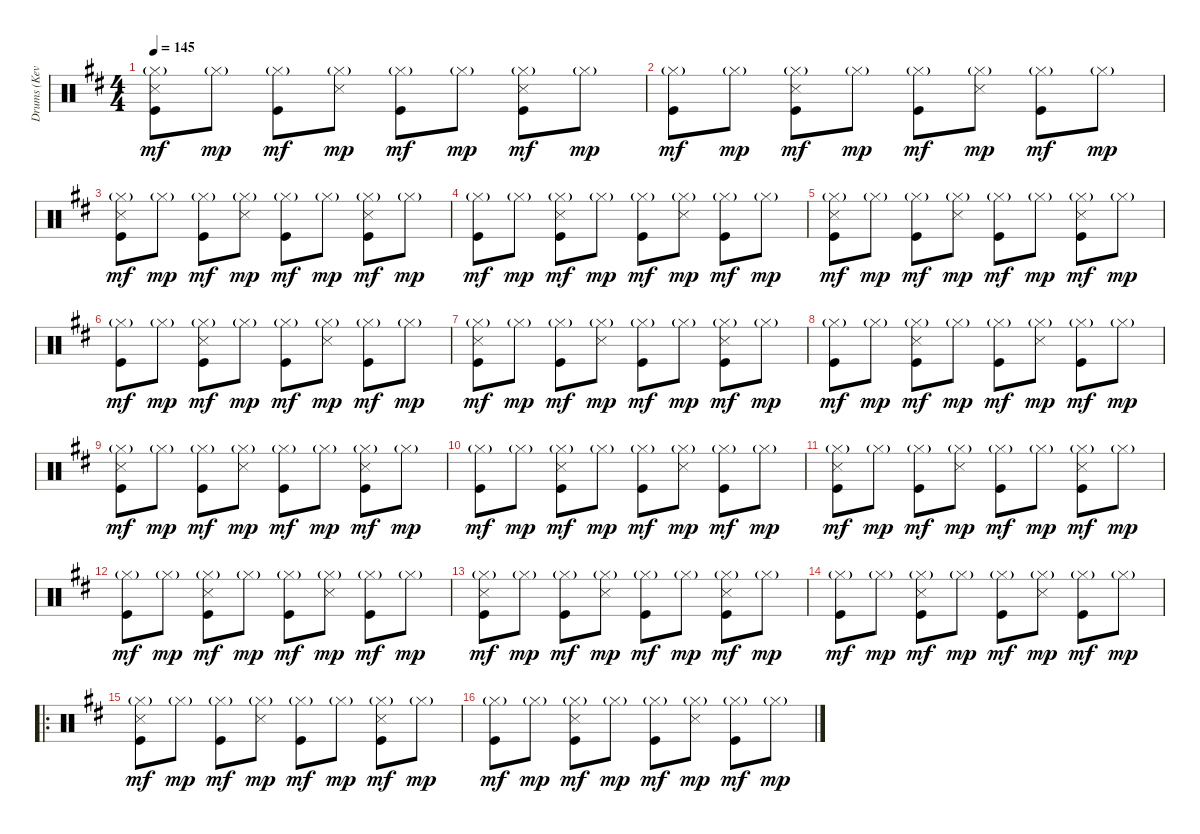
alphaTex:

\track ("Drums (Kevin Haskins)" "Drums (Kev") {instrument percussion}
\staff {score}
\articulation defaults
\ts (4 4)
\tempo 145
\clef neutral
\ks d
("Hi-Hat (closed)"{g} "Snare (side stick) 3" "Kick (hit)").8{dy mf} "Hi-Hat (closed)"{g}.8{dy mp} ("Hi-Hat (closed)"{g} "Kick (hit)").8{dy mf} ("Hi-Hat (closed)"{g} "Snare (side stick) 3").8{dy mp} ("Hi-Hat (closed)"{g} "Kick (hit)").8{dy mf} "Hi-Hat (closed)"{g}.8{dy mp} ("Hi-Hat (closed)"{g} "Snare (side stick) 3" "Kick (hit)").8{dy mf} "Hi-Hat (closed)"{g}.8{dy mp} |
("Hi-Hat (closed)"{g} "Kick (hit)").8{dy mf} "Hi-Hat (closed)"{g}.8{dy mp} ("Hi-Hat (closed)"{g} "Snare (side stick) 3" "Kick (hit)").8{dy mf} "Hi-Hat (closed)"{g}.8{dy mp} ("Hi-Hat (closed)"{g} "Kick (hit)").8{dy mf} ("Hi-Hat (closed)"{g} "Snare (side stick) 3").8{dy mp} ("Hi-Hat (closed)"{g} "Kick (hit)").8{dy mf} "Hi-Hat (closed)"{g}.8{dy mp} |
("Hi-Hat (closed)"{g} "Snare (side stick) 3" "Kick (hit)").8{dy mf} "Hi-Hat (closed)"{g}.8{dy mp} ("Hi-Hat (closed)"{g} "Kick (hit)").8{dy mf} ("Hi-Hat (closed)"{g} "Snare (side stick) 3").8{dy mp} ("Hi-Hat (closed)"{g} "Kick (hit)").8{dy mf} "Hi-Hat (closed)"{g}.8{dy mp} ("Hi-Hat (closed)"{g} "Snare (side stick) 3" "Kick (hit)").8{dy mf} "Hi-Hat (closed)"{g}.8{dy mp} |
("Hi-Hat (closed)"{g} "Kick (hit)").8{dy mf} "Hi-Hat (closed)"{g}.8{dy mp} ("Hi-Hat (closed)"{g} "Snare (side stick) 3" "Kick (hit)").8{dy mf} "Hi-Hat (closed)"{g}.8{dy mp} ("Hi-Hat (closed)"{g} "Kick (hit)").8{dy mf} ("Hi-Hat (closed)"{g} "Snare (side stick) 3").8{dy mp} ("Hi-Hat (closed)"{g} "Kick (hit)").8{dy mf} "Hi-Hat (closed)"{g}.8{dy mp} |
("Hi-Hat (closed)"{g} "Snare (side stick) 3" "Kick (hit)").8{dy mf} "Hi-Hat (closed)"{g}.8{dy mp} ("Hi-Hat (closed)"{g} "Kick (hit)").8{dy mf} ("Hi-Hat (closed)"{g} "Snare (side stick) 3").8{dy mp} ("Hi-Hat (closed)"{g} "Kick (hit)").8{dy mf} "Hi-Hat (closed)"{g}.8{dy mp} ("Hi-Hat (closed)"{g} "Snare (side stick) 3" "Kick (hit)").8{dy mf} "Hi-Hat (closed)"{g}.8{dy mp} |
("Hi-Hat (closed)"{g} "Kick (hit)").8{dy mf} "Hi-Hat (closed)"{g}.8{dy mp} ("Hi-Hat (closed)"{g} "Snare (side stick) 3" "Kick (hit)").8{dy mf} "Hi-Hat (closed)"{g}.8{dy mp} ("Hi-Hat (closed)"{g} "Kick (hit)").8{dy mf} ("Hi-Hat (closed)"{g} "Snare (side stick) 3").8{dy mp} ("Hi-Hat (closed)"{g} "Kick (hit)").8{dy mf} "Hi-Hat (closed)"{g}.8{dy mp} |
("Hi-Hat (closed)"{g} "Snare (side stick) 3" "Kick (hit)").8{dy mf} "Hi-Hat (closed)"{g}.8{dy mp} ("Hi-Hat (closed)"{g} "Kick (hit)").8{dy mf} ("Hi-Hat (closed)"{g} "Snare (side stick) 3").8{dy mp} ("Hi-Hat (closed)"{g} "Kick (hit)").8{dy mf} "Hi-Hat (closed)"{g}.8{dy mp} ("Hi-Hat (closed)"{g} "Snare (side stick) 3" "Kick (hit)").8{dy mf} "Hi-Hat (closed)"{g}.8{dy mp} |
("Hi-Hat (closed)"{g} "Kick (hit)").8{dy mf} "Hi-Hat (closed)"{g}.8{dy mp} ("Hi-Hat (closed)"{g} "Snare (side stick) 3" "Kick (hit)").8{dy mf} "Hi-Hat (closed)"{g}.8{dy mp} ("Hi-Hat (closed)"{g} "Kick (hit)").8{dy mf} ("Hi-Hat (closed)"{g} "Snare (side stick) 3").8{dy mp} ("Hi-Hat (closed)"{g} "Kick (hit)").8{dy mf} "Hi-Hat (closed)"{g}.8{dy mp} |
("Hi-Hat (closed)"{g} "Snare (side stick) 3" "Kick (hit)").8{dy mf} "Hi-Hat (closed)"{g}.8{dy mp} ("Hi-Hat (closed)"{g} "Kick (hit)").8{dy mf} ("Hi-Hat (closed)"{g} "Snare (side stick) 3").8{dy mp} ("Hi-Hat (closed)"{g} "Kick (hit)").8{dy mf} "Hi-Hat (closed)"{g}.8{dy mp} ("Hi-Hat (closed)"{g} "Snare (side stick) 3" "Kick (hit)").8{dy mf} "Hi-Hat (closed)"{g}.8{dy mp} |
("Hi-Hat (closed)"{g} "Kick (hit)").8{dy mf} "Hi-Hat (closed)"{g}.8{dy mp} ("Hi-Hat (closed)"{g} "Snare (side stick) 3" "Kick (hit)").8{dy mf} "Hi-Hat (closed)"{g}.8{dy mp} ("Hi-Hat (closed)"{g} "Kick (hit)").8{dy mf} ("Hi-Hat (closed)"{g} "Snare (side stick) 3").8{dy mp} ("Hi-Hat (closed)"{g} "Kick (hit)").8{dy mf} "Hi-Hat (closed)"{g}.8{dy mp} |
("Hi-Hat (closed)"{g} "Snare (side stick) 3" "Kick (hit)").8{dy mf} "Hi-Hat (closed)"{g}.8{dy mp} ("Hi-Hat (closed)"{g} "Kick (hit)").8{dy mf} ("Hi-Hat (closed)"{g} "Snare (side stick) 3").8{dy mp} ("Hi-Hat (closed)"{g} "Kick (hit)").8{dy mf} "Hi-Hat (closed)"{g}.8{dy mp} ("Hi-Hat (closed)"{g} "Snare (side stick) 3" "Kick (hit)").8{dy mf} "Hi-Hat (closed)"{g}.8{dy mp} |
("Hi-Hat (closed)"{g} "Kick (hit)").8{dy mf} "Hi-Hat (closed)"{g}.8{dy mp} ("Hi-Hat (closed)"{g} "Snare (side stick) 3" "Kick (hit)").8{dy mf} "Hi-Hat (closed)"{g}.8{dy mp} ("Hi-Hat (closed)"{g} "Kick (hit)").8{dy mf} ("Hi-Hat (closed)"{g} "Snare (side stick) 3").8{dy mp} ("Hi-Hat (closed)"{g} "Kick (hit)").8{dy mf} "Hi-Hat (closed)"{g}.8{dy mp} |
("Hi-Hat (closed)"{g} "Snare (side stick) 3" "Kick (hit)").8{dy mf} "Hi-Hat (closed)"{g}.8{dy mp} ("Hi-Hat (closed)"{g} "Kick (hit)").8{dy mf} ("Hi-Hat (closed)"{g} "Snare (side stick) 3").8{dy mp} ("Hi-Hat (closed)"{g} "Kick (hit)").8{dy mf} "Hi-Hat (closed)"{g}.8{dy mp} ("Hi-Hat (closed)"{g} "Snare (side stick) 3" "Kick (hit)").8{dy mf} "Hi-Hat (closed)"{g}.8{dy mp} |
("Hi-Hat (closed)"{g} "Kick (hit)").8{dy mf} "Hi-Hat (closed)"{g}.8{dy mp} ("Hi-Hat (closed)"{g} "Snare (side stick) 3" "Kick (hit)").8{dy mf} "Hi-Hat (closed)"{g}.8{dy mp} ("Hi-Hat (closed)"{g} "Kick (hit)").8{dy mf} ("Hi-Hat (closed)"{g} "Snare (side stick) 3").8{dy mp} ("Hi-Hat (closed)"{g} "Kick (hit)").8{dy mf} "Hi-Hat (closed)"{g}.8{dy mp} |
\ro
("Hi-Hat (closed)"{g} "Snare (side stick) 3" "Kick (hit)").8{dy mf} "Hi-Hat (closed)"{g}.8{dy mp} ("Hi-Hat (closed)"{g} "Kick (hit)").8{dy mf} ("Hi-Hat (closed)"{g} "Snare (side stick) 3").8{dy mp} ("Hi-Hat (closed)"{g} "Kick (hit)").8{dy mf} "Hi-Hat (closed)"{g}.8{dy mp} ("Hi-Hat (closed)"{g} "Snare (side stick) 3" "Kick (hit)").8{dy mf} "Hi-Hat (closed)"{g}.8{dy mp} |
("Hi-Hat (closed)"{g} "Kick (hit)").8{dy mf} "Hi-Hat (closed)"{g}.8{dy mp} ("Hi-Hat (closed)"{g} "Snare (side stick) 3" "Kick (hit)").8{dy mf} "Hi-Hat (closed)"{g}.8{dy mp} ("Hi-Hat (closed)"{g} "Kick (hit)").8{dy mf} ("Hi-Hat (closed)"{g} "Snare (side stick) 3").8{dy mp} ("Hi-Hat (closed)"{g} "Kick (hit)").8{dy mf} "Hi-Hat (closed)"{g}.8{dy mp}
